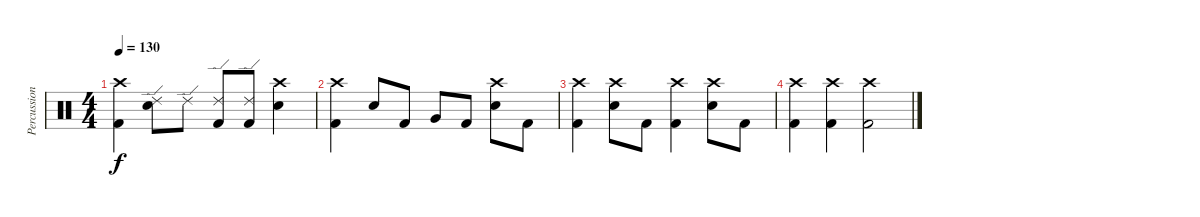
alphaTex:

\track ("Percussion" "Percussion") {instrument percussion}
\staff {score}
\articulation defaults
\ts (4 4)
\tempo 130
\clef neutral
\ks c
("Crash high (hit)" "Kick (hit) 2").4{dy f} ("Ride (edge) 2" "Electric Snare (hit)").8 "Ride (edge) 2".8 ("Ride (edge) 2" "Kick (hit) 2").8 ("Ride (edge) 2" "Kick (hit) 2").8 ("Crash high (hit)" "Electric Snare (hit)").4 |
("Crash high (hit)" "Kick (hit) 2").4 "Electric Snare (hit)".8 "Kick (hit) 2".8 "Very Low Tom (hit)".8 "Kick (hit) 2".8 ("Crash high (hit)" "Electric Snare (hit)").8 "Kick (hit) 2".8 |
("Crash high (hit)" "Kick (hit) 2").4 ("Crash high (hit)" "Electric Snare (hit)").8 "Kick (hit) 2".8 ("Crash high (hit)" "Kick (hit) 2").4 ("Crash high (hit)" "Electric Snare (hit)").8 "Kick (hit) 2".8 |
("Crash high (hit)" "Kick (hit) 2").4 ("Crash high (hit)" "Kick (hit) 2").4 ("Crash high (hit)" "Kick (hit) 2").2
